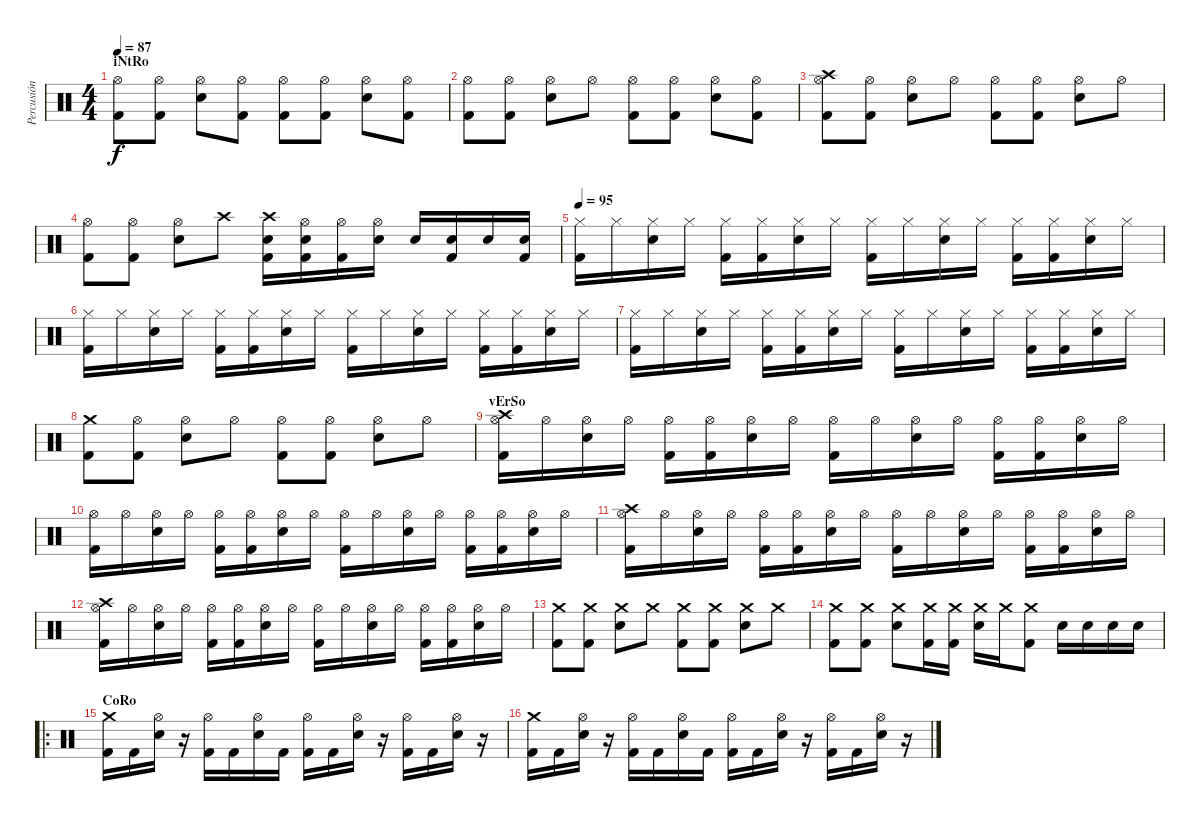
\track ("Percusión" "Percusión") {instrument percussion}
\staff {score}
\articulation defaults
\ts (4 4)
\section ("" "iNtRo")
\tempo 87
\tempo 97
\tempo 87
\clef neutral
\ks c
("Hi-Hat (open)" "Kick (hit) 2").8{dy f} ("Hi-Hat (open)" "Kick (hit) 2").8 ("Hi-Hat (open)" "Electric Snare (hit)").8 ("Hi-Hat (open)" "Kick (hit) 2").8 ("Hi-Hat (open)" "Kick (hit) 2").8 ("Hi-Hat (open)" "Kick (hit) 2").8 ("Hi-Hat (open)" "Electric Snare (hit)").8 ("Hi-Hat (open)" "Kick (hit) 2").8 |
("Hi-Hat (open)" "Kick (hit) 2").8 ("Hi-Hat (open)" "Kick (hit) 2").8 ("Hi-Hat (open)" "Electric Snare (hit)").8 "Hi-Hat (open)".8 ("Hi-Hat (open)" "Kick (hit) 2").8 ("Hi-Hat (open)" "Kick (hit) 2").8 ("Hi-Hat (open)" "Electric Snare (hit)").8 ("Hi-Hat (open)" "Kick (hit) 2").8 |
("Crash high (hit)" "Hi-Hat (open)" "Kick (hit) 2").8 ("Hi-Hat (open)" "Kick (hit) 2").8 ("Hi-Hat (open)" "Electric Snare (hit)").8 "Hi-Hat (open)".8 ("Hi-Hat (open)" "Kick (hit) 2").8 ("Hi-Hat (open)" "Kick (hit) 2").8 ("Hi-Hat (open)" "Electric Snare (hit)").8 "Hi-Hat (open)".8 |
("Hi-Hat (open)" "Kick (hit) 2").8 ("Hi-Hat (open)" "Kick (hit) 2").8 ("Hi-Hat (open)" "Electric Snare (hit)").8 "Crash high (hit)".8 ("Crash high (hit)" "Electric Snare (hit)" "Kick (hit) 2").16 ("Hi-Hat (open)" "Electric Snare (hit)" "Kick (hit) 2").16 ("Hi-Hat (open)" "Kick (hit) 2").16 ("Hi-Hat (open)" "Electric Snare (hit)").16 "Electric Snare (hit)".16 ("Electric Snare (hit)" "Kick (hit) 2").16 "Electric Snare (hit)".16 ("Electric Snare (hit)" "Kick (hit) 2").16 |
\tempo 95
("Hi-Hat (closed)" "Kick (hit) 2").16 "Hi-Hat (closed)".16 ("Hi-Hat (closed)" "Electric Snare (hit)").16 "Hi-Hat (closed)".16 ("Hi-Hat (closed)" "Kick (hit) 2").16 ("Hi-Hat (closed)" "Kick (hit) 2").16 ("Hi-Hat (closed)" "Electric Snare (hit)").16 "Hi-Hat (closed)".16 ("Hi-Hat (closed)" "Kick (hit) 2").16 "Hi-Hat (closed)".16 ("Hi-Hat (closed)" "Electric Snare (hit)").16 "Hi-Hat (closed)".16 ("Hi-Hat (closed)" "Kick (hit) 2").16 ("Hi-Hat (closed)" "Kick (hit) 2").16 ("Hi-Hat (closed)" "Electric Snare (hit)").16 "Hi-Hat (closed)".16 |
("Hi-Hat (closed)" "Kick (hit) 2").16 "Hi-Hat (closed)".16 ("Hi-Hat (closed)" "Electric Snare (hit)").16 "Hi-Hat (closed)".16 ("Hi-Hat (closed)" "Kick (hit) 2").16 ("Hi-Hat (closed)" "Kick (hit) 2").16 ("Hi-Hat (closed)" "Electric Snare (hit)").16 "Hi-Hat (closed)".16 ("Hi-Hat (closed)" "Kick (hit) 2").16 "Hi-Hat (closed)".16 ("Hi-Hat (closed)" "Electric Snare (hit)").16 "Hi-Hat (closed)".16 ("Hi-Hat (closed)" "Kick (hit) 2").16 ("Hi-Hat (closed)" "Kick (hit) 2").16 ("Hi-Hat (closed)" "Electric Snare (hit)").16 "Hi-Hat (closed)".16 |
("Hi-Hat (closed)" "Kick (hit) 2").16 "Hi-Hat (closed)".16 ("Hi-Hat (closed)" "Electric Snare (hit)").16 "Hi-Hat (closed)".16 ("Hi-Hat (closed)" "Kick (hit) 2").16 ("Hi-Hat (closed)" "Kick (hit) 2").16 ("Hi-Hat (closed)" "Electric Snare (hit)").16 "Hi-Hat (closed)".16 ("Hi-Hat (closed)" "Kick (hit) 2").16 "Hi-Hat (closed)".16 ("Hi-Hat (closed)" "Electric Snare (hit)").16 "Hi-Hat (closed)".16 ("Hi-Hat (closed)" "Kick (hit) 2").16 ("Hi-Hat (closed)" "Kick (hit) 2").16 ("Hi-Hat (closed)" "Electric Snare (hit)").16 "Hi-Hat (closed)".16 |
("Crash medium (hit)" "Kick (hit) 2").8 ("Hi-Hat (open)" "Kick (hit) 2").8 ("Hi-Hat (open)" "Electric Snare (hit)").8 "Hi-Hat (open)".8 ("Hi-Hat (open)" "Kick (hit) 2").8 ("Hi-Hat (open)" "Kick (hit) 2").8 ("Hi-Hat (open)" "Electric Snare (hit)").8 "Hi-Hat (open)".8 |
\section ("" "vErSo")
("Hi-Hat (open)" "Crash high (hit)" "Kick (hit) 2").16 "Hi-Hat (open)".16 ("Hi-Hat (open)" "Electric Snare (hit)").16 "Hi-Hat (open)".16 ("Hi-Hat (open)" "Kick (hit) 2").16 ("Hi-Hat (open)" "Kick (hit) 2").16 ("Hi-Hat (open)" "Electric Snare (hit)").16 "Hi-Hat (open)".16 ("Hi-Hat (open)" "Kick (hit) 2").16 "Hi-Hat (open)".16 ("Hi-Hat (open)" "Electric Snare (hit)").16 "Hi-Hat (open)".16 ("Hi-Hat (open)" "Kick (hit) 2").16 ("Hi-Hat (open)" "Kick (hit) 2").16 ("Hi-Hat (open)" "Electric Snare (hit)").16 "Hi-Hat (open)".16 |
("Hi-Hat (open)" "Kick (hit) 2").16 "Hi-Hat (open)".16 ("Hi-Hat (open)" "Electric Snare (hit)").16 "Hi-Hat (open)".16 ("Hi-Hat (open)" "Kick (hit) 2").16 ("Hi-Hat (open)" "Kick (hit) 2").16 ("Hi-Hat (open)" "Electric Snare (hit)").16 "Hi-Hat (open)".16 ("Hi-Hat (open)" "Kick (hit) 2").16 "Hi-Hat (open)".16 ("Hi-Hat (open)" "Electric Snare (hit)").16 "Hi-Hat (open)".16 ("Hi-Hat (open)" "Kick (hit) 2").16 ("Hi-Hat (open)" "Kick (hit) 2").16 ("Hi-Hat (open)" "Electric Snare (hit)").16 "Hi-Hat (open)".16 |
("Hi-Hat (open)" "Crash high (hit)" "Kick (hit) 2").16 "Hi-Hat (open)".16 ("Hi-Hat (open)" "Electric Snare (hit)").16 "Hi-Hat (open)".16 ("Hi-Hat (open)" "Kick (hit) 2").16 ("Hi-Hat (open)" "Kick (hit) 2").16 ("Hi-Hat (open)" "Electric Snare (hit)").16 "Hi-Hat (open)".16 ("Hi-Hat (open)" "Kick (hit) 2").16 "Hi-Hat (open)".16 ("Hi-Hat (open)" "Electric Snare (hit)").16 "Hi-Hat (open)".16 ("Hi-Hat (open)" "Kick (hit) 2").16 ("Hi-Hat (open)" "Kick (hit) 2").16 ("Hi-Hat (open)" "Electric Snare (hit)").16 "Hi-Hat (open)".16 |
("Hi-Hat (open)" "Crash high (hit)" "Kick (hit) 2").16 "Hi-Hat (open)".16 ("Hi-Hat (open)" "Electric Snare (hit)").16 "Hi-Hat (open)".16 ("Hi-Hat (open)" "Kick (hit) 2").16 ("Hi-Hat (open)" "Kick (hit) 2").16 ("Hi-Hat (open)" "Electric Snare (hit)").16 "Hi-Hat (open)".16 ("Hi-Hat (open)" "Kick (hit) 2").16 "Hi-Hat (open)".16 ("Hi-Hat (open)" "Electric Snare (hit)").16 "Hi-Hat (open)".16 ("Hi-Hat (open)" "Kick (hit) 2").16 ("Hi-Hat (open)" "Kick (hit) 2").16 ("Hi-Hat (open)" "Electric Snare (hit)").16 "Hi-Hat (open)".16 |
("Crash medium (hit)" "Kick (hit) 2").8 ("Crash medium (hit)" "Kick (hit) 2").8 ("Crash medium (hit)" "Electric Snare (hit)").8 "Crash medium (hit)".8 ("Crash medium (hit)" "Kick (hit) 2").8 ("Crash medium (hit)" "Kick (hit) 2").8 ("Crash medium (hit)" "Electric Snare (hit)").8 "Crash medium (hit)".8 |
("Crash medium (hit)" "Kick (hit) 2").8 ("Crash medium (hit)" "Kick (hit) 2").8 ("Crash medium (hit)" "Electric Snare (hit)").8 ("Crash medium (hit)" "Kick (hit) 2").16 ("Crash medium (hit)" "Kick (hit) 2").16 ("Crash medium (hit)" "Electric Snare (hit)").16 "Crash medium (hit)".16 ("Crash medium (hit)" "Kick (hit) 2").8 "Electric Snare (hit)".16 "Electric Snare (hit)".16 "Electric Snare (hit)".16 "Electric Snare (hit)".16 |
\ro
\section ("" "CoRo")
("Crash medium (hit)" "Kick (hit) 2").16 "Kick (hit) 2".16 ("Hi-Hat (open)" "Electric Snare (hit)").16 r.16 ("Hi-Hat (open)" "Kick (hit) 2").16 "Kick (hit) 2".16 ("Hi-Hat (open)" "Electric Snare (hit)").16 "Kick (hit) 2".16 ("Hi-Hat (open)" "Kick (hit) 2").16 "Kick (hit) 2".16 ("Hi-Hat (open)" "Electric Snare (hit)").16 r.16 ("Hi-Hat (open)" "Kick (hit) 2").16 "Kick (hit) 2".16 ("Hi-Hat (open)" "Electric Snare (hit)").16 r.16 |
("Crash medium (hit)" "Kick (hit) 2").16 "Kick (hit) 2".16 ("Hi-Hat (open)" "Electric Snare (hit)").16 r.16 ("Hi-Hat (open)" "Kick (hit) 2").16 "Kick (hit) 2".16 ("Hi-Hat (open)" "Electric Snare (hit)").16 "Kick (hit) 2".16 ("Hi-Hat (open)" "Kick (hit) 2").16 "Kick (hit) 2".16 ("Hi-Hat (open)" "Electric Snare (hit)").16 r.16 ("Hi-Hat (open)" "Kick (hit) 2").16 "Kick (hit) 2".16 ("Hi-Hat (open)" "Electric Snare (hit)").16 r.16
